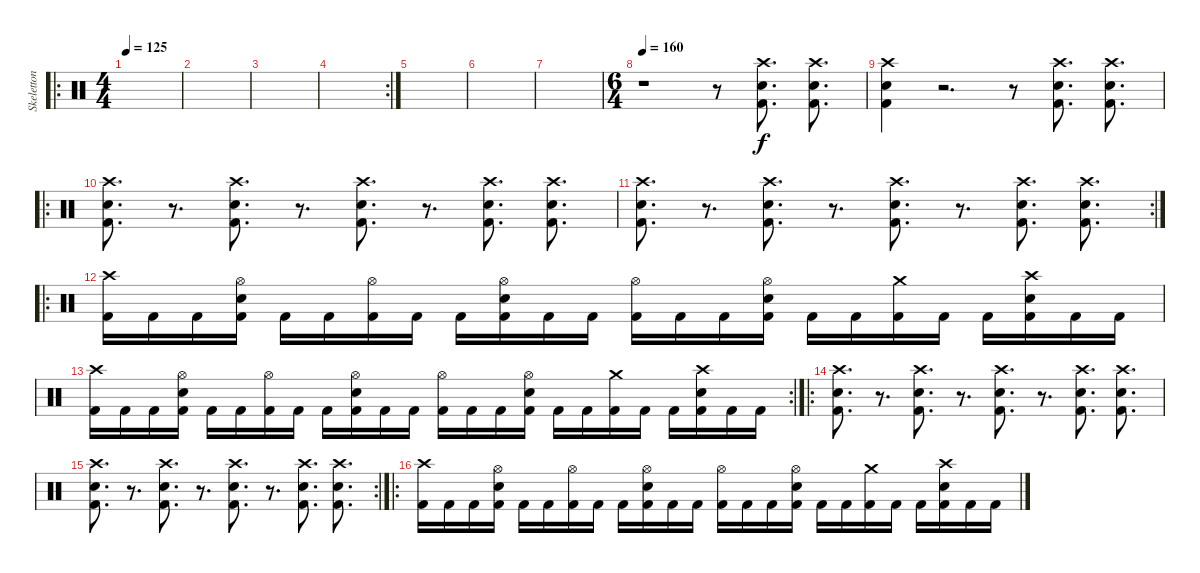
\track ("Skeletton - Drums" "Skeletton ") {instrument percussion}
\staff {score}
\articulation defaults
\ro
\ts (4 4)
\tempo 125
\clef neutral
\ks c
|
|
|
\rc 2
|
|
|
|
\ts (6 4)
\tempo 160
r.1 r.8 ("Crash high (hit)" "Electric Snare (hit)" "Kick (hit) 2").8{d} ("Crash high (hit)" "Electric Snare (hit)" "Kick (hit) 2").8{d} |
("Crash high (hit)" "Electric Snare (hit)" "Kick (hit) 2").4 r.2{d} r.8 ("Crash high (hit)" "Electric Snare (hit)" "Kick (hit) 2").8{d} ("Crash high (hit)" "Electric Snare (hit)" "Kick (hit) 2").8{d} |
\ro
("Crash high (hit)" "Electric Snare (hit)" "Kick (hit) 2").8{d} r.8{d} ("Crash high (hit)" "Electric Snare (hit)" "Kick (hit) 2").8{d} r.8{d} ("Crash high (hit)" "Electric Snare (hit)" "Kick (hit) 2").8{d} r.8{d} ("Crash high (hit)" "Electric Snare (hit)" "Kick (hit) 2").8{d} ("Crash high (hit)" "Electric Snare (hit)" "Kick (hit) 2").8{d} |
\rc 2
("Crash high (hit)" "Electric Snare (hit)" "Kick (hit) 2").8{d} r.8{d} ("Crash high (hit)" "Electric Snare (hit)" "Kick (hit) 2").8{d} r.8{d} ("Crash high (hit)" "Electric Snare (hit)" "Kick (hit) 2").8{d} r.8{d} ("Crash high (hit)" "Electric Snare (hit)" "Kick (hit) 2").8{d} ("Crash high (hit)" "Electric Snare (hit)" "Kick (hit) 2").8{d} |
\ro
("Crash high (hit)" "Kick (hit) 2").16 "Kick (hit) 2".16 "Kick (hit) 2".16 ("Hi-Hat (open)" "Electric Snare (hit)" "Kick (hit) 2").16 "Kick (hit) 2".16 "Kick (hit) 2".16 ("Hi-Hat (open)" "Kick (hit) 2").16 "Kick (hit) 2".16 "Kick (hit) 2".16 ("Hi-Hat (open)" "Electric Snare (hit)" "Kick (hit) 2").16 "Kick (hit) 2".16 "Kick (hit) 2".16 ("Hi-Hat (open)" "Kick (hit) 2").16 "Kick (hit) 2".16 "Kick (hit) 2".16 ("Hi-Hat (open)" "Electric Snare (hit)" "Kick (hit) 2").16 "Kick (hit) 2".16 "Kick (hit) 2".16 ("Crash medium (hit)" "Kick (hit) 2").16 "Kick (hit) 2".16 "Kick (hit) 2".16 ("Crash high (hit)" "Electric Snare (hit)" "Kick (hit) 2").16 "Kick (hit) 2".16 "Kick (hit) 2".16 |
\rc 2
("Crash high (hit)" "Kick (hit) 2").16 "Kick (hit) 2".16 "Kick (hit) 2".16 ("Hi-Hat (open)" "Electric Snare (hit)" "Kick (hit) 2").16 "Kick (hit) 2".16 "Kick (hit) 2".16 ("Hi-Hat (open)" "Kick (hit) 2").16 "Kick (hit) 2".16 "Kick (hit) 2".16 ("Hi-Hat (open)" "Electric Snare (hit)" "Kick (hit) 2").16 "Kick (hit) 2".16 "Kick (hit) 2".16 ("Hi-Hat (open)" "Kick (hit) 2").16 "Kick (hit) 2".16 "Kick (hit) 2".16 ("Hi-Hat (open)" "Electric Snare (hit)" "Kick (hit) 2").16 "Kick (hit) 2".16 "Kick (hit) 2".16 ("Crash medium (hit)" "Kick (hit) 2").16 "Kick (hit) 2".16 "Kick (hit) 2".16 ("Crash high (hit)" "Electric Snare (hit)" "Kick (hit) 2").16 "Kick (hit) 2".16 "Kick (hit) 2".16 |
\ro
("Crash high (hit)" "Electric Snare (hit)" "Kick (hit) 2").8{d} r.8{d} ("Crash high (hit)" "Electric Snare (hit)" "Kick (hit) 2").8{d} r.8{d} ("Crash high (hit)" "Electric Snare (hit)" "Kick (hit) 2").8{d} r.8{d} ("Crash high (hit)" "Electric Snare (hit)" "Kick (hit) 2").8{d} ("Crash high (hit)" "Electric Snare (hit)" "Kick (hit) 2").8{d} |
\rc 2
("Crash high (hit)" "Electric Snare (hit)" "Kick (hit) 2").8{d} r.8{d} ("Crash high (hit)" "Electric Snare (hit)" "Kick (hit) 2").8{d} r.8{d} ("Crash high (hit)" "Electric Snare (hit)" "Kick (hit) 2").8{d} r.8{d} ("Crash high (hit)" "Electric Snare (hit)" "Kick (hit) 2").8{d} ("Crash high (hit)" "Electric Snare (hit)" "Kick (hit) 2").8{d} |
\ro
("Crash high (hit)" "Kick (hit) 2").16 "Kick (hit) 2".16 "Kick (hit) 2".16 ("Hi-Hat (open)" "Electric Snare (hit)" "Kick (hit) 2").16 "Kick (hit) 2".16 "Kick (hit) 2".16 ("Hi-Hat (open)" "Kick (hit) 2").16 "Kick (hit) 2".16 "Kick (hit) 2".16 ("Hi-Hat (open)" "Electric Snare (hit)" "Kick (hit) 2").16 "Kick (hit) 2".16 "Kick (hit) 2".16 ("Hi-Hat (open)" "Kick (hit) 2").16 "Kick (hit) 2".16 "Kick (hit) 2".16 ("Hi-Hat (open)" "Electric Snare (hit)" "Kick (hit) 2").16 "Kick (hit) 2".16 "Kick (hit) 2".16 ("Crash medium (hit)" "Kick (hit) 2").16 "Kick (hit) 2".16 "Kick (hit) 2".16 ("Crash high (hit)" "Electric Snare (hit)" "Kick (hit) 2").16 "Kick (hit) 2".16 "Kick (hit) 2".16
